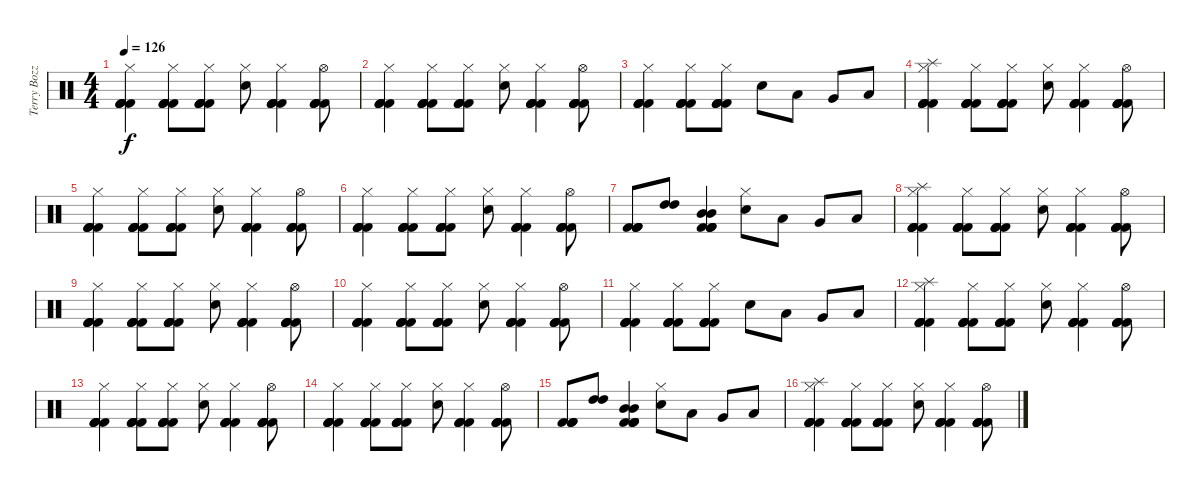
\track ("Terry Bozzio" "Terry Bozz") {instrument percussion}
\staff {score}
\articulation defaults
\ts (4 4)
\tempo 126
\clef neutral
\ks c
("Hi-Hat (closed)" "Kick (hit) 2" "Kick (hit) 2" "Kick (hit) 2" "Kick (hit) 2").4{dy f} ("Hi-Hat (closed)" "Kick (hit) 2" "Kick (hit) 2" "Kick (hit) 2" "Kick (hit) 2").8 ("Hi-Hat (closed)" "Kick (hit) 2" "Kick (hit) 2" "Kick (hit) 2" "Kick (hit) 2").8 ("Hi-Hat (closed)" "Snare (hit) 2").8 ("Hi-Hat (closed)" "Kick (hit) 2" "Kick (hit) 2" "Kick (hit) 2" "Kick (hit) 2").4 ("Hi-Hat (open)" "Kick (hit) 2" "Kick (hit) 2" "Kick (hit) 2" "Kick (hit) 2").8 |
("Hi-Hat (closed)" "Kick (hit) 2" "Kick (hit) 2" "Kick (hit) 2" "Kick (hit) 2").4 ("Hi-Hat (closed)" "Kick (hit) 2" "Kick (hit) 2" "Kick (hit) 2" "Kick (hit) 2").8 ("Hi-Hat (closed)" "Kick (hit) 2" "Kick (hit) 2" "Kick (hit) 2" "Kick (hit) 2").8 ("Hi-Hat (closed)" "Snare (hit) 2").8 ("Hi-Hat (closed)" "Kick (hit) 2" "Kick (hit) 2" "Kick (hit) 2" "Kick (hit) 2").4 ("Hi-Hat (open)" "Kick (hit) 2" "Kick (hit) 2" "Kick (hit) 2" "Kick (hit) 2").8 |
("Hi-Hat (closed)" "Kick (hit) 2" "Kick (hit) 2" "Kick (hit) 2" "Kick (hit) 2").4 ("Hi-Hat (closed)" "Kick (hit) 2" "Kick (hit) 2" "Kick (hit) 2" "Kick (hit) 2").8 ("Hi-Hat (closed)" "Kick (hit) 2" "Kick (hit) 2" "Kick (hit) 2" "Kick (hit) 2").8 "Snare (hit) 2".8 "Low Tom (hit)".8 "Very Low Tom (hit)".8 "Low Floor Tom (hit)".8 |
("Splash (hit)" "Hi-Hat (closed)" "Kick (hit) 2" "Kick (hit) 2" "Kick (hit) 2" "Kick (hit) 2").4 ("Hi-Hat (closed)" "Kick (hit) 2" "Kick (hit) 2" "Kick (hit) 2" "Kick (hit) 2").8 ("Hi-Hat (closed)" "Kick (hit) 2" "Kick (hit) 2" "Kick (hit) 2" "Kick (hit) 2").8 ("Hi-Hat (closed)" "Snare (hit) 2").8 ("Hi-Hat (closed)" "Kick (hit) 2" "Kick (hit) 2" "Kick (hit) 2" "Kick (hit) 2").4 ("Hi-Hat (open)" "Kick (hit) 2" "Kick (hit) 2" "Kick (hit) 2" "Kick (hit) 2").8 |
("Hi-Hat (closed)" "Kick (hit) 2" "Kick (hit) 2" "Kick (hit) 2" "Kick (hit) 2").4 ("Hi-Hat (closed)" "Kick (hit) 2" "Kick (hit) 2" "Kick (hit) 2" "Kick (hit) 2").8 ("Hi-Hat (closed)" "Kick (hit) 2" "Kick (hit) 2" "Kick (hit) 2" "Kick (hit) 2").8 ("Hi-Hat (closed)" "Snare (hit) 2").8 ("Hi-Hat (closed)" "Kick (hit) 2" "Kick (hit) 2" "Kick (hit) 2" "Kick (hit) 2").4 ("Hi-Hat (open)" "Kick (hit) 2" "Kick (hit) 2" "Kick (hit) 2" "Kick (hit) 2").8 |
("Hi-Hat (closed)" "Kick (hit) 2" "Kick (hit) 2" "Kick (hit) 2" "Kick (hit) 2").4 ("Hi-Hat (closed)" "Kick (hit) 2" "Kick (hit) 2" "Kick (hit) 2" "Kick (hit) 2").8 ("Hi-Hat (closed)" "Kick (hit) 2" "Kick (hit) 2" "Kick (hit) 2" "Kick (hit) 2").8 ("Hi-Hat (closed)" "Snare (hit) 2").8 ("Hi-Hat (closed)" "Kick (hit) 2" "Kick (hit) 2" "Kick (hit) 2" "Kick (hit) 2").4 ("Hi-Hat (open)" "Kick (hit) 2" "Kick (hit) 2" "Kick (hit) 2" "Kick (hit) 2").8 |
("Kick (hit) 2" "Kick (hit) 2" "Kick (hit) 2" "Kick (hit) 2").8 ("High Tom (hit)" "High Tom (hit)").8 ("Mid Tom (hit)" "Mid Tom (hit)" "Kick (hit) 2" "Kick (hit) 2" "Kick (hit) 2" "Kick (hit) 2").4 ("Hi-Hat (closed)" "Snare (hit) 2").8 "Low Tom (hit)".8 "Very Low Tom (hit)".8 "Low Floor Tom (hit)".8 |
("Splash (hit)" "Hi-Hat (closed)" "Kick (hit) 2" "Kick (hit) 2" "Kick (hit) 2" "Kick (hit) 2").4 ("Hi-Hat (closed)" "Kick (hit) 2" "Kick (hit) 2" "Kick (hit) 2" "Kick (hit) 2").8 ("Hi-Hat (closed)" "Kick (hit) 2" "Kick (hit) 2" "Kick (hit) 2" "Kick (hit) 2").8 ("Hi-Hat (closed)" "Snare (hit) 2").8 ("Hi-Hat (closed)" "Kick (hit) 2" "Kick (hit) 2" "Kick (hit) 2" "Kick (hit) 2").4 ("Hi-Hat (open)" "Kick (hit) 2" "Kick (hit) 2" "Kick (hit) 2" "Kick (hit) 2").8 |
("Hi-Hat (closed)" "Kick (hit) 2" "Kick (hit) 2" "Kick (hit) 2" "Kick (hit) 2").4 ("Hi-Hat (closed)" "Kick (hit) 2" "Kick (hit) 2" "Kick (hit) 2" "Kick (hit) 2").8 ("Hi-Hat (closed)" "Kick (hit) 2" "Kick (hit) 2" "Kick (hit) 2" "Kick (hit) 2").8 ("Hi-Hat (closed)" "Snare (hit) 2").8 ("Hi-Hat (closed)" "Kick (hit) 2" "Kick (hit) 2" "Kick (hit) 2" "Kick (hit) 2").4 ("Hi-Hat (open)" "Kick (hit) 2" "Kick (hit) 2" "Kick (hit) 2" "Kick (hit) 2").8 |
("Hi-Hat (closed)" "Kick (hit) 2" "Kick (hit) 2" "Kick (hit) 2" "Kick (hit) 2").4 ("Hi-Hat (closed)" "Kick (hit) 2" "Kick (hit) 2" "Kick (hit) 2" "Kick (hit) 2").8 ("Hi-Hat (closed)" "Kick (hit) 2" "Kick (hit) 2" "Kick (hit) 2" "Kick (hit) 2").8 ("Hi-Hat (closed)" "Snare (hit) 2").8 ("Hi-Hat (closed)" "Kick (hit) 2" "Kick (hit) 2" "Kick (hit) 2" "Kick (hit) 2").4 ("Hi-Hat (open)" "Kick (hit) 2" "Kick (hit) 2" "Kick (hit) 2" "Kick (hit) 2").8 |
("Hi-Hat (closed)" "Kick (hit) 2" "Kick (hit) 2" "Kick (hit) 2" "Kick (hit) 2").4 ("Hi-Hat (closed)" "Kick (hit) 2" "Kick (hit) 2" "Kick (hit) 2" "Kick (hit) 2").8 ("Hi-Hat (closed)" "Kick (hit) 2" "Kick (hit) 2" "Kick (hit) 2" "Kick (hit) 2").8 "Snare (hit) 2".8 "Low Tom (hit)".8 "Very Low Tom (hit)".8 "Low Floor Tom (hit)".8 |
("Splash (hit)" "Hi-Hat (closed)" "Kick (hit) 2" "Kick (hit) 2" "Kick (hit) 2" "Kick (hit) 2").4 ("Hi-Hat (closed)" "Kick (hit) 2" "Kick (hit) 2" "Kick (hit) 2" "Kick (hit) 2").8 ("Hi-Hat (closed)" "Kick (hit) 2" "Kick (hit) 2" "Kick (hit) 2" "Kick (hit) 2").8 ("Hi-Hat (closed)" "Snare (hit) 2").8 ("Hi-Hat (closed)" "Kick (hit) 2" "Kick (hit) 2" "Kick (hit) 2" "Kick (hit) 2").4 ("Hi-Hat (open)" "Kick (hit) 2" "Kick (hit) 2" "Kick (hit) 2" "Kick (hit) 2").8 |
("Hi-Hat (closed)" "Kick (hit) 2" "Kick (hit) 2" "Kick (hit) 2" "Kick (hit) 2").4 ("Hi-Hat (closed)" "Kick (hit) 2" "Kick (hit) 2" "Kick (hit) 2" "Kick (hit) 2").8 ("Hi-Hat (closed)" "Kick (hit) 2" "Kick (hit) 2" "Kick (hit) 2" "Kick (hit) 2").8 ("Hi-Hat (closed)" "Snare (hit) 2").8 ("Hi-Hat (closed)" "Kick (hit) 2" "Kick (hit) 2" "Kick (hit) 2" "Kick (hit) 2").4 ("Hi-Hat (open)" "Kick (hit) 2" "Kick (hit) 2" "Kick (hit) 2" "Kick (hit) 2").8 |
("Hi-Hat (closed)" "Kick (hit) 2" "Kick (hit) 2" "Kick (hit) 2" "Kick (hit) 2").4 ("Hi-Hat (closed)" "Kick (hit) 2" "Kick (hit) 2" "Kick (hit) 2" "Kick (hit) 2").8 ("Hi-Hat (closed)" "Kick (hit) 2" "Kick (hit) 2" "Kick (hit) 2" "Kick (hit) 2").8 ("Hi-Hat (closed)" "Snare (hit) 2").8 ("Hi-Hat (closed)" "Kick (hit) 2" "Kick (hit) 2" "Kick (hit) 2" "Kick (hit) 2").4 ("Hi-Hat (open)" "Kick (hit) 2" "Kick (hit) 2" "Kick (hit) 2" "Kick (hit) 2").8 |
("Kick (hit) 2" "Kick (hit) 2" "Kick (hit) 2" "Kick (hit) 2").8 ("High Tom (hit)" "High Tom (hit)").8 ("Mid Tom (hit)" "Mid Tom (hit)" "Kick (hit) 2" "Kick (hit) 2" "Kick (hit) 2" "Kick (hit) 2").4 ("Hi-Hat (closed)" "Snare (hit) 2").8 "Low Tom (hit)".8 "Very Low Tom (hit)".8 "Low Floor Tom (hit)".8 |
("Splash (hit)" "Hi-Hat (closed)" "Kick (hit) 2" "Kick (hit) 2" "Kick (hit) 2" "Kick (hit) 2").4 ("Hi-Hat (closed)" "Kick (hit) 2" "Kick (hit) 2" "Kick (hit) 2" "Kick (hit) 2").8 ("Hi-Hat (closed)" "Kick (hit) 2" "Kick (hit) 2" "Kick (hit) 2" "Kick (hit) 2").8 ("Hi-Hat (closed)" "Snare (hit) 2").8 ("Hi-Hat (closed)" "Kick (hit) 2" "Kick (hit) 2" "Kick (hit) 2" "Kick (hit) 2").4 ("Hi-Hat (open)" "Kick (hit) 2" "Kick (hit) 2" "Kick (hit) 2" "Kick (hit) 2").8
